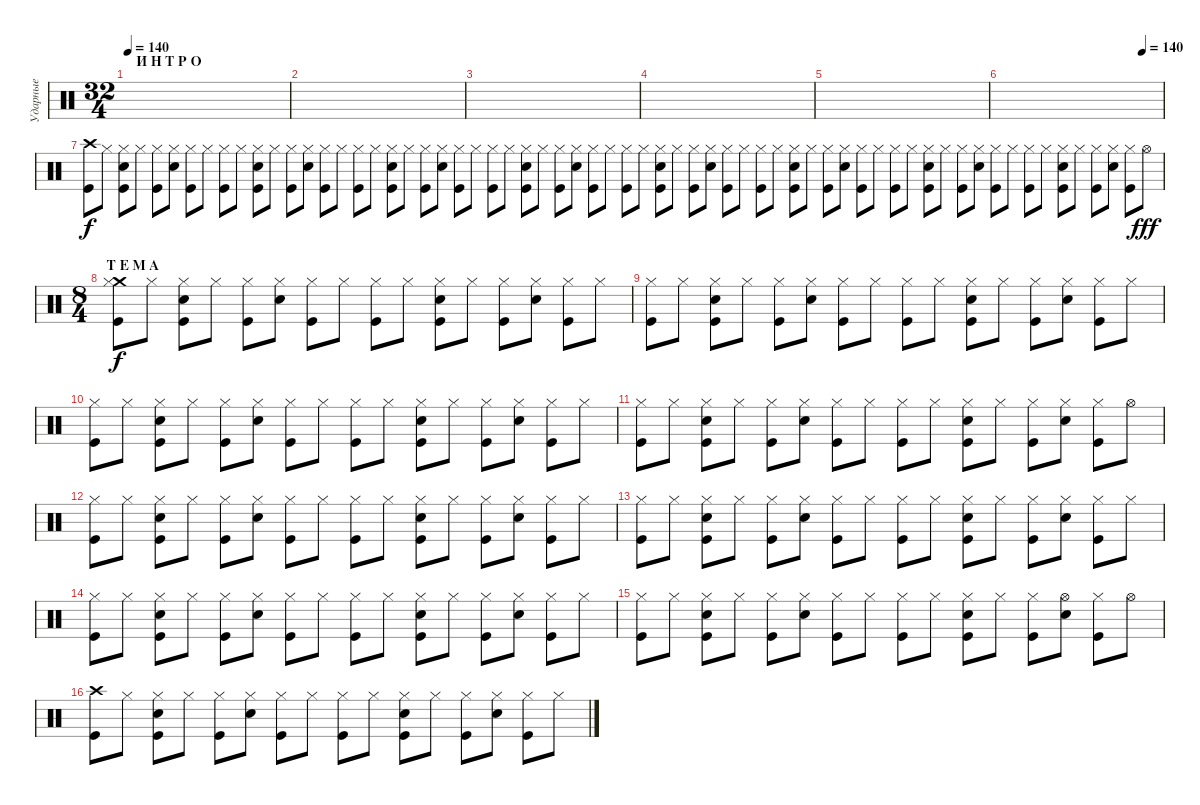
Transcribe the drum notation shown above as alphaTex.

\track ("Ударные" "Ударные") {instrument percussion}
\staff {score}
\articulation defaults
\ts (32 4)
\section ("" "  И Н Т Р О")
\tempo 140
\tempo 120
\tempo 140
\clef neutral
\ks c
|
|
|
|
|
\tempo (140 0.875)
|
("Crash high (hit)" "Kick (hit)").8 "Hi-Hat (closed)".8 ("Hi-Hat (closed)" "Electric Snare (hit)" "Kick (hit)").8 "Hi-Hat (closed)".8 ("Hi-Hat (closed)" "Kick (hit)").8 ("Hi-Hat (closed)" "Electric Snare (hit)").8 ("Hi-Hat (closed)" "Kick (hit)").8 "Hi-Hat (closed)".8 ("Hi-Hat (closed)" "Kick (hit)").8 "Hi-Hat (closed)".8 ("Hi-Hat (closed)" "Electric Snare (hit)" "Kick (hit)").8 "Hi-Hat (closed)".8 ("Hi-Hat (closed)" "Kick (hit)").8 ("Hi-Hat (closed)" "Electric Snare (hit)").8 ("Hi-Hat (closed)" "Kick (hit)").8 "Hi-Hat (closed)".8 ("Hi-Hat (closed)" "Kick (hit)").8 "Hi-Hat (closed)".8 ("Hi-Hat (closed)" "Electric Snare (hit)" "Kick (hit)").8 "Hi-Hat (closed)".8 ("Hi-Hat (closed)" "Kick (hit)").8 ("Hi-Hat (closed)" "Electric Snare (hit)").8 ("Hi-Hat (closed)" "Kick (hit)").8 "Hi-Hat (closed)".8 ("Hi-Hat (closed)" "Kick (hit)").8 "Hi-Hat (closed)".8 ("Hi-Hat (closed)" "Electric Snare (hit)" "Kick (hit)").8 "Hi-Hat (closed)".8 ("Hi-Hat (closed)" "Kick (hit)").8 ("Hi-Hat (closed)" "Electric Snare (hit)").8 ("Hi-Hat (closed)" "Kick (hit)").8 "Hi-Hat (closed)".8 ("Hi-Hat (closed)" "Kick (hit)").8 "Hi-Hat (closed)".8 ("Hi-Hat (closed)" "Electric Snare (hit)" "Kick (hit)").8 "Hi-Hat (closed)".8 ("Hi-Hat (closed)" "Kick (hit)").8 ("Hi-Hat (closed)" "Electric Snare (hit)").8 ("Hi-Hat (closed)" "Kick (hit)").8 "Hi-Hat (closed)".8 ("Hi-Hat (closed)" "Kick (hit)").8 "Hi-Hat (closed)".8 ("Hi-Hat (closed)" "Electric Snare (hit)" "Kick (hit)").8 "Hi-Hat (closed)".8 ("Hi-Hat (closed)" "Kick (hit)").8 ("Hi-Hat (closed)" "Electric Snare (hit)").8 ("Hi-Hat (closed)" "Kick (hit)").8 "Hi-Hat (closed)".8 ("Hi-Hat (closed)" "Kick (hit)").8 "Hi-Hat (closed)".8 ("Hi-Hat (closed)" "Electric Snare (hit)" "Kick (hit)").8 "Hi-Hat (closed)".8 ("Hi-Hat (closed)" "Kick (hit)").8 ("Hi-Hat (closed)" "Electric Snare (hit)").8 ("Hi-Hat (closed)" "Kick (hit)").8 "Hi-Hat (closed)".8 ("Hi-Hat (closed)" "Kick (hit)").8 "Hi-Hat (closed)".8 ("Hi-Hat (closed)" "Electric Snare (hit)" "Kick (hit)").8 "Hi-Hat (closed)".8 ("Hi-Hat (closed)" "Kick (hit)").8 ("Hi-Hat (closed)" "Electric Snare (hit)").8 ("Hi-Hat (closed)" "Kick (hit)").8 "Hi-Hat (open)".8{dy fff} |
\ts (8 4)
\section ("" " Т Е М А")
("Crash medium (hit)" "Hi-Hat (closed)" "Kick (hit)").8{dy f} "Hi-Hat (closed)".8 ("Hi-Hat (closed)" "Electric Snare (hit)" "Kick (hit)").8 "Hi-Hat (closed)".8 ("Hi-Hat (closed)" "Kick (hit)").8 ("Hi-Hat (closed)" "Electric Snare (hit)").8 ("Hi-Hat (closed)" "Kick (hit)").8 "Hi-Hat (closed)".8 ("Hi-Hat (closed)" "Kick (hit)").8 "Hi-Hat (closed)".8 ("Hi-Hat (closed)" "Electric Snare (hit)" "Kick (hit)").8 "Hi-Hat (closed)".8 ("Hi-Hat (closed)" "Kick (hit)").8 ("Hi-Hat (closed)" "Electric Snare (hit)").8 ("Hi-Hat (closed)" "Kick (hit)").8 "Hi-Hat (closed)".8 |
("Hi-Hat (closed)" "Kick (hit)").8 "Hi-Hat (closed)".8 ("Hi-Hat (closed)" "Electric Snare (hit)" "Kick (hit)").8 "Hi-Hat (closed)".8 ("Hi-Hat (closed)" "Kick (hit)").8 ("Hi-Hat (closed)" "Electric Snare (hit)").8 ("Hi-Hat (closed)" "Kick (hit)").8 "Hi-Hat (closed)".8 ("Hi-Hat (closed)" "Kick (hit)").8 "Hi-Hat (closed)".8 ("Hi-Hat (closed)" "Electric Snare (hit)" "Kick (hit)").8 "Hi-Hat (closed)".8 ("Hi-Hat (closed)" "Kick (hit)").8 ("Hi-Hat (closed)" "Electric Snare (hit)").8 ("Hi-Hat (closed)" "Kick (hit)").8 "Hi-Hat (closed)".8 |
("Hi-Hat (closed)" "Kick (hit)").8 "Hi-Hat (closed)".8 ("Hi-Hat (closed)" "Electric Snare (hit)" "Kick (hit)").8 "Hi-Hat (closed)".8 ("Hi-Hat (closed)" "Kick (hit)").8 ("Hi-Hat (closed)" "Electric Snare (hit)").8 ("Hi-Hat (closed)" "Kick (hit)").8 "Hi-Hat (closed)".8 ("Hi-Hat (closed)" "Kick (hit)").8 "Hi-Hat (closed)".8 ("Hi-Hat (closed)" "Electric Snare (hit)" "Kick (hit)").8 "Hi-Hat (closed)".8 ("Hi-Hat (closed)" "Kick (hit)").8 ("Hi-Hat (closed)" "Electric Snare (hit)").8 ("Hi-Hat (closed)" "Kick (hit)").8 "Hi-Hat (closed)".8 |
("Hi-Hat (closed)" "Kick (hit)").8 "Hi-Hat (closed)".8 ("Hi-Hat (closed)" "Electric Snare (hit)" "Kick (hit)").8 "Hi-Hat (closed)".8 ("Hi-Hat (closed)" "Kick (hit)").8 ("Hi-Hat (closed)" "Electric Snare (hit)").8 ("Hi-Hat (closed)" "Kick (hit)").8 "Hi-Hat (closed)".8 ("Hi-Hat (closed)" "Kick (hit)").8 "Hi-Hat (closed)".8 ("Hi-Hat (closed)" "Electric Snare (hit)" "Kick (hit)").8 "Hi-Hat (closed)".8 ("Hi-Hat (closed)" "Kick (hit)").8 ("Hi-Hat (closed)" "Electric Snare (hit)").8 ("Hi-Hat (closed)" "Kick (hit)").8 "Hi-Hat (open)".8 |
("Hi-Hat (closed)" "Kick (hit)").8 "Hi-Hat (closed)".8 ("Hi-Hat (closed)" "Electric Snare (hit)" "Kick (hit)").8 "Hi-Hat (closed)".8 ("Hi-Hat (closed)" "Kick (hit)").8 ("Hi-Hat (closed)" "Electric Snare (hit)").8 ("Hi-Hat (closed)" "Kick (hit)").8 "Hi-Hat (closed)".8 ("Hi-Hat (closed)" "Kick (hit)").8 "Hi-Hat (closed)".8 ("Hi-Hat (closed)" "Electric Snare (hit)" "Kick (hit)").8 "Hi-Hat (closed)".8 ("Hi-Hat (closed)" "Kick (hit)").8 ("Hi-Hat (closed)" "Electric Snare (hit)").8 ("Hi-Hat (closed)" "Kick (hit)").8 "Hi-Hat (closed)".8 |
("Hi-Hat (closed)" "Kick (hit)").8 "Hi-Hat (closed)".8 ("Hi-Hat (closed)" "Electric Snare (hit)" "Kick (hit)").8 "Hi-Hat (closed)".8 ("Hi-Hat (closed)" "Kick (hit)").8 ("Hi-Hat (closed)" "Electric Snare (hit)").8 ("Hi-Hat (closed)" "Kick (hit)").8 "Hi-Hat (closed)".8 ("Hi-Hat (closed)" "Kick (hit)").8 "Hi-Hat (closed)".8 ("Hi-Hat (closed)" "Electric Snare (hit)" "Kick (hit)").8 "Hi-Hat (closed)".8 ("Hi-Hat (closed)" "Kick (hit)").8 ("Hi-Hat (closed)" "Electric Snare (hit)").8 ("Hi-Hat (closed)" "Kick (hit)").8 "Hi-Hat (closed)".8 |
("Hi-Hat (closed)" "Kick (hit)").8 "Hi-Hat (closed)".8 ("Hi-Hat (closed)" "Electric Snare (hit)" "Kick (hit)").8 "Hi-Hat (closed)".8 ("Hi-Hat (closed)" "Kick (hit)").8 ("Hi-Hat (closed)" "Electric Snare (hit)").8 ("Hi-Hat (closed)" "Kick (hit)").8 "Hi-Hat (closed)".8 ("Hi-Hat (closed)" "Kick (hit)").8 "Hi-Hat (closed)".8 ("Hi-Hat (closed)" "Electric Snare (hit)" "Kick (hit)").8 "Hi-Hat (closed)".8 ("Hi-Hat (closed)" "Kick (hit)").8 ("Hi-Hat (closed)" "Electric Snare (hit)").8 ("Hi-Hat (closed)" "Kick (hit)").8 "Hi-Hat (closed)".8 |
("Hi-Hat (closed)" "Kick (hit)").8 "Hi-Hat (closed)".8 ("Hi-Hat (closed)" "Electric Snare (hit)" "Kick (hit)").8 "Hi-Hat (closed)".8 ("Hi-Hat (closed)" "Kick (hit)").8 ("Hi-Hat (closed)" "Electric Snare (hit)").8 ("Hi-Hat (closed)" "Kick (hit)").8 "Hi-Hat (closed)".8 ("Hi-Hat (closed)" "Kick (hit)").8 "Hi-Hat (closed)".8 ("Hi-Hat (closed)" "Electric Snare (hit)" "Kick (hit)").8 "Hi-Hat (closed)".8 ("Hi-Hat (closed)" "Kick (hit)").8 ("Hi-Hat (open)" "Electric Snare (hit)").8 ("Hi-Hat (closed)" "Kick (hit)").8 "Hi-Hat (open)".8 |
("Crash high (hit)" "Kick (hit)").8 "Hi-Hat (closed)".8 ("Hi-Hat (closed)" "Electric Snare (hit)" "Kick (hit)").8 "Hi-Hat (closed)".8 ("Hi-Hat (closed)" "Kick (hit)").8 ("Hi-Hat (closed)" "Electric Snare (hit)").8 ("Hi-Hat (closed)" "Kick (hit)").8 "Hi-Hat (closed)".8 ("Hi-Hat (closed)" "Kick (hit)").8 "Hi-Hat (closed)".8 ("Hi-Hat (closed)" "Electric Snare (hit)" "Kick (hit)").8 "Hi-Hat (closed)".8 ("Hi-Hat (closed)" "Kick (hit)").8 ("Hi-Hat (closed)" "Electric Snare (hit)").8 ("Hi-Hat (closed)" "Kick (hit)").8 "Hi-Hat (closed)".8
